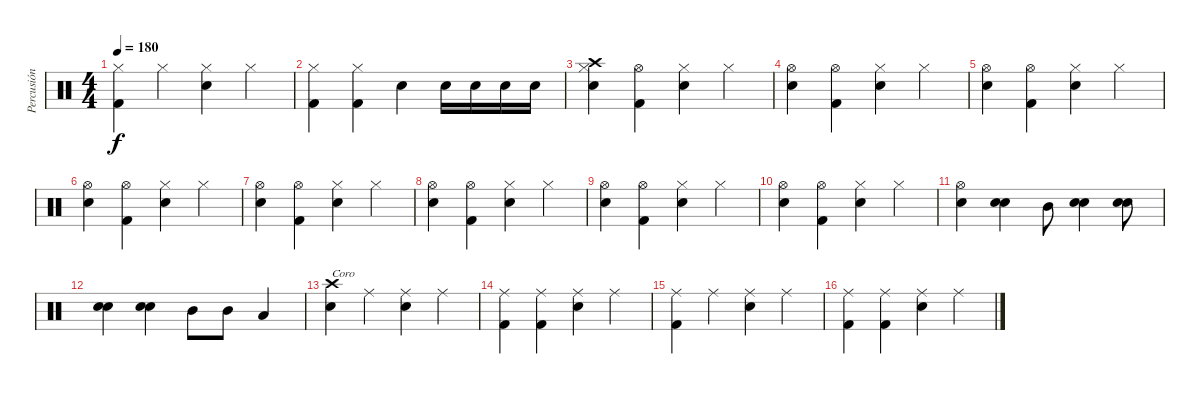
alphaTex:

\track ("Percusión" "Percusión") {instrument percussion}
\staff {score}
\articulation defaults
\ts (4 4)
\tempo 180
\clef neutral
\ks c
("Hi-Hat (closed)" "Kick (hit) 2").4{dy f} "Hi-Hat (closed)".4 ("Hi-Hat (closed)" "Snare (hit) 2").4 "Hi-Hat (closed)".4 |
("Hi-Hat (closed)" "Kick (hit) 2").4 ("Hi-Hat (closed)" "Kick (hit) 2").4 "Snare (hit) 2".4 "Electric Snare (hit)".16 "Electric Snare (hit)".16 "Electric Snare (hit)".16 "Electric Snare (hit)".16 |
("Hi-Hat (closed)" "Crash high (hit)" "Snare (hit) 2").4 ("Hi-Hat (open)" "Kick (hit) 2").4 ("Hi-Hat (closed)" "Snare (hit) 2").4 "Hi-Hat (closed)".4 |
("Hi-Hat (open)" "Snare (hit) 2").4 ("Hi-Hat (open)" "Kick (hit) 2").4 ("Hi-Hat (closed)" "Snare (hit) 2").4 "Hi-Hat (closed)".4 |
("Hi-Hat (open)" "Snare (hit) 2").4 ("Hi-Hat (open)" "Kick (hit) 2").4 ("Hi-Hat (closed)" "Snare (hit) 2").4 "Hi-Hat (closed)".4 |
("Hi-Hat (open)" "Snare (hit) 2").4 ("Hi-Hat (open)" "Kick (hit) 2").4 ("Hi-Hat (closed)" "Snare (hit) 2").4 "Hi-Hat (closed)".4 |
("Hi-Hat (open)" "Snare (hit) 2").4 ("Hi-Hat (open)" "Kick (hit) 2").4 ("Hi-Hat (closed)" "Snare (hit) 2").4 "Hi-Hat (closed)".4 |
("Hi-Hat (open)" "Snare (hit) 2").4 ("Hi-Hat (open)" "Kick (hit) 2").4 ("Hi-Hat (closed)" "Snare (hit) 2").4 "Hi-Hat (closed)".4 |
("Hi-Hat (open)" "Snare (hit) 2").4 ("Hi-Hat (open)" "Kick (hit) 2").4 ("Hi-Hat (closed)" "Snare (hit) 2").4 "Hi-Hat (closed)".4 |
("Hi-Hat (open)" "Snare (hit) 2").4 ("Hi-Hat (open)" "Kick (hit) 2").4 ("Hi-Hat (closed)" "Snare (hit) 2").4 "Hi-Hat (closed)".4 |
("Hi-Hat (open)" "Snare (hit) 2").4 ("Snare (hit) 2" "Snare (hit) 2").4{bu 240} "Mid Tom (hit)".8 ("Snare (hit) 2" "Snare (hit) 2").4{bu 240} ("Snare (hit) 2" "Snare (hit) 2").8{bu 240} |
("Snare (hit) 2" "Snare (hit) 2").4{bu 240} ("Snare (hit) 2" "Snare (hit) 2").4{bu 240} "Mid Tom (hit)".8 "Mid Tom (hit)".8 "Low Tom (hit)".4 |
("Crash high (hit)" "Snare (hit) 2").4{txt "Coro"} "Ride (middle)".4 ("Ride (middle)" "Snare (hit) 2").4 "Ride (middle)".4 |
("Ride (middle)" "Kick (hit) 2").4 ("Ride (middle)" "Kick (hit) 2").4 ("Ride (middle)" "Snare (hit) 2").4 "Ride (middle)".4 |
("Ride (middle)" "Kick (hit) 2").4 "Ride (middle)".4 ("Ride (middle)" "Snare (hit) 2").4 "Ride (middle)".4 |
("Ride (middle)" "Kick (hit) 2").4 ("Ride (middle)" "Kick (hit) 2").4 ("Ride (middle)" "Snare (hit) 2").4 "Ride (middle)".4
